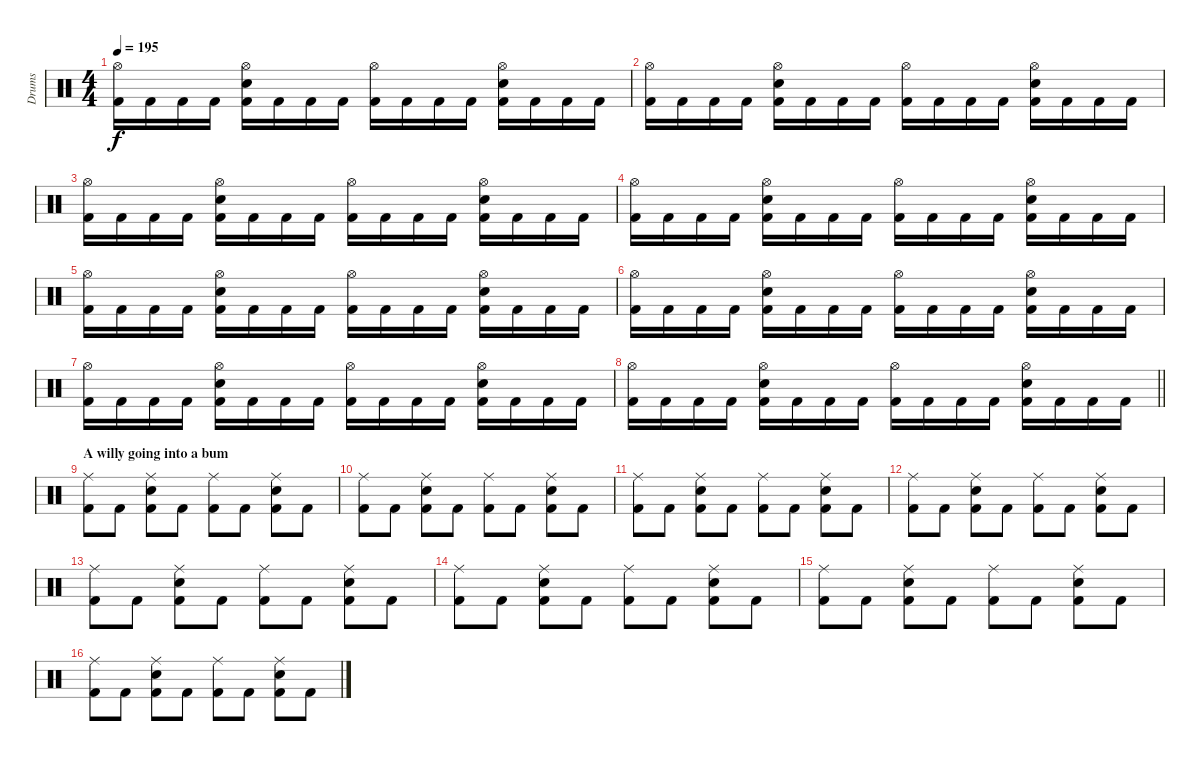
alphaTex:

\track ("Drums" "Drums") {instrument percussion}
\staff {score}
\articulation defaults
\ts (4 4)
\tempo 195
\clef neutral
\ks c
("Hi-Hat (open)" "Kick (hit) 2").16{dy f} "Kick (hit) 2".16 "Kick (hit) 2".16 "Kick (hit) 2".16 ("Hi-Hat (open)" "Snare (hit) 2" "Kick (hit) 2").16 "Kick (hit) 2".16 "Kick (hit) 2".16 "Kick (hit) 2".16 ("Hi-Hat (open)" "Kick (hit) 2").16 "Kick (hit) 2".16 "Kick (hit) 2".16 "Kick (hit) 2".16 ("Hi-Hat (open)" "Snare (hit) 2" "Kick (hit) 2").16 "Kick (hit) 2".16 "Kick (hit) 2".16 "Kick (hit) 2".16 |
("Hi-Hat (open)" "Kick (hit) 2").16 "Kick (hit) 2".16 "Kick (hit) 2".16 "Kick (hit) 2".16 ("Hi-Hat (open)" "Snare (hit) 2" "Kick (hit) 2").16 "Kick (hit) 2".16 "Kick (hit) 2".16 "Kick (hit) 2".16 ("Hi-Hat (open)" "Kick (hit) 2").16 "Kick (hit) 2".16 "Kick (hit) 2".16 "Kick (hit) 2".16 ("Hi-Hat (open)" "Snare (hit) 2" "Kick (hit) 2").16 "Kick (hit) 2".16 "Kick (hit) 2".16 "Kick (hit) 2".16 |
("Hi-Hat (open)" "Kick (hit) 2").16 "Kick (hit) 2".16 "Kick (hit) 2".16 "Kick (hit) 2".16 ("Hi-Hat (open)" "Snare (hit) 2" "Kick (hit) 2").16 "Kick (hit) 2".16 "Kick (hit) 2".16 "Kick (hit) 2".16 ("Hi-Hat (open)" "Kick (hit) 2").16 "Kick (hit) 2".16 "Kick (hit) 2".16 "Kick (hit) 2".16 ("Hi-Hat (open)" "Snare (hit) 2" "Kick (hit) 2").16 "Kick (hit) 2".16 "Kick (hit) 2".16 "Kick (hit) 2".16 |
("Hi-Hat (open)" "Kick (hit) 2").16 "Kick (hit) 2".16 "Kick (hit) 2".16 "Kick (hit) 2".16 ("Hi-Hat (open)" "Snare (hit) 2" "Kick (hit) 2").16 "Kick (hit) 2".16 "Kick (hit) 2".16 "Kick (hit) 2".16 ("Hi-Hat (open)" "Kick (hit) 2").16 "Kick (hit) 2".16 "Kick (hit) 2".16 "Kick (hit) 2".16 ("Hi-Hat (open)" "Snare (hit) 2" "Kick (hit) 2").16 "Kick (hit) 2".16 "Kick (hit) 2".16 "Kick (hit) 2".16 |
("Hi-Hat (open)" "Kick (hit) 2").16 "Kick (hit) 2".16 "Kick (hit) 2".16 "Kick (hit) 2".16 ("Hi-Hat (open)" "Snare (hit) 2" "Kick (hit) 2").16 "Kick (hit) 2".16 "Kick (hit) 2".16 "Kick (hit) 2".16 ("Hi-Hat (open)" "Kick (hit) 2").16 "Kick (hit) 2".16 "Kick (hit) 2".16 "Kick (hit) 2".16 ("Hi-Hat (open)" "Snare (hit) 2" "Kick (hit) 2").16 "Kick (hit) 2".16 "Kick (hit) 2".16 "Kick (hit) 2".16 |
("Hi-Hat (open)" "Kick (hit) 2").16 "Kick (hit) 2".16 "Kick (hit) 2".16 "Kick (hit) 2".16 ("Hi-Hat (open)" "Snare (hit) 2" "Kick (hit) 2").16 "Kick (hit) 2".16 "Kick (hit) 2".16 "Kick (hit) 2".16 ("Hi-Hat (open)" "Kick (hit) 2").16 "Kick (hit) 2".16 "Kick (hit) 2".16 "Kick (hit) 2".16 ("Hi-Hat (open)" "Snare (hit) 2" "Kick (hit) 2").16 "Kick (hit) 2".16 "Kick (hit) 2".16 "Kick (hit) 2".16 |
("Hi-Hat (open)" "Kick (hit) 2").16 "Kick (hit) 2".16 "Kick (hit) 2".16 "Kick (hit) 2".16 ("Hi-Hat (open)" "Snare (hit) 2" "Kick (hit) 2").16 "Kick (hit) 2".16 "Kick (hit) 2".16 "Kick (hit) 2".16 ("Hi-Hat (open)" "Kick (hit) 2").16 "Kick (hit) 2".16 "Kick (hit) 2".16 "Kick (hit) 2".16 ("Hi-Hat (open)" "Snare (hit) 2" "Kick (hit) 2").16 "Kick (hit) 2".16 "Kick (hit) 2".16 "Kick (hit) 2".16 |
\barLineRight lightlight
("Hi-Hat (open)" "Kick (hit) 2").16 "Kick (hit) 2".16 "Kick (hit) 2".16 "Kick (hit) 2".16 ("Hi-Hat (open)" "Snare (hit) 2" "Kick (hit) 2").16 "Kick (hit) 2".16 "Kick (hit) 2".16 "Kick (hit) 2".16 ("Hi-Hat (open)" "Kick (hit) 2").16 "Kick (hit) 2".16 "Kick (hit) 2".16 "Kick (hit) 2".16 ("Hi-Hat (open)" "Snare (hit) 2" "Kick (hit) 2").16 "Kick (hit) 2".16 "Kick (hit) 2".16 "Kick (hit) 2".16 |
\section ("" "A willy going into a bum")
("Ride (middle)" "Kick (hit) 2").8 "Kick (hit) 2".8 ("Ride (middle)" "Snare (hit) 2" "Kick (hit) 2").8 "Kick (hit) 2".8 ("Ride (middle)" "Kick (hit) 2").8 "Kick (hit) 2".8 ("Ride (middle)" "Snare (hit) 2" "Kick (hit) 2").8 "Kick (hit) 2".8 |
("Ride (middle)" "Kick (hit) 2").8 "Kick (hit) 2".8 ("Ride (middle)" "Snare (hit) 2" "Kick (hit) 2").8 "Kick (hit) 2".8 ("Ride (middle)" "Kick (hit) 2").8 "Kick (hit) 2".8 ("Ride (middle)" "Snare (hit) 2" "Kick (hit) 2").8 "Kick (hit) 2".8 |
("Ride (middle)" "Kick (hit) 2").8 "Kick (hit) 2".8 ("Ride (middle)" "Snare (hit) 2" "Kick (hit) 2").8 "Kick (hit) 2".8 ("Ride (middle)" "Kick (hit) 2").8 "Kick (hit) 2".8 ("Ride (middle)" "Snare (hit) 2" "Kick (hit) 2").8 "Kick (hit) 2".8 |
("Ride (middle)" "Kick (hit) 2").8 "Kick (hit) 2".8 ("Ride (middle)" "Snare (hit) 2" "Kick (hit) 2").8 "Kick (hit) 2".8 ("Ride (middle)" "Kick (hit) 2").8 "Kick (hit) 2".8 ("Ride (middle)" "Snare (hit) 2" "Kick (hit) 2").8 "Kick (hit) 2".8 |
("Ride (middle)" "Kick (hit) 2").8 "Kick (hit) 2".8 ("Ride (middle)" "Snare (hit) 2" "Kick (hit) 2").8 "Kick (hit) 2".8 ("Ride (middle)" "Kick (hit) 2").8 "Kick (hit) 2".8 ("Ride (middle)" "Snare (hit) 2" "Kick (hit) 2").8 "Kick (hit) 2".8 |
("Ride (middle)" "Kick (hit) 2").8 "Kick (hit) 2".8 ("Ride (middle)" "Snare (hit) 2" "Kick (hit) 2").8 "Kick (hit) 2".8 ("Ride (middle)" "Kick (hit) 2").8 "Kick (hit) 2".8 ("Ride (middle)" "Snare (hit) 2" "Kick (hit) 2").8 "Kick (hit) 2".8 |
("Ride (middle)" "Kick (hit) 2").8 "Kick (hit) 2".8 ("Ride (middle)" "Snare (hit) 2" "Kick (hit) 2").8 "Kick (hit) 2".8 ("Ride (middle)" "Kick (hit) 2").8 "Kick (hit) 2".8 ("Ride (middle)" "Snare (hit) 2" "Kick (hit) 2").8 "Kick (hit) 2".8 |
("Ride (middle)" "Kick (hit) 2").8 "Kick (hit) 2".8 ("Ride (middle)" "Snare (hit) 2" "Kick (hit) 2").8 "Kick (hit) 2".8 ("Ride (middle)" "Kick (hit) 2").8 "Kick (hit) 2".8 ("Ride (middle)" "Snare (hit) 2" "Kick (hit) 2").8 "Kick (hit) 2".8
